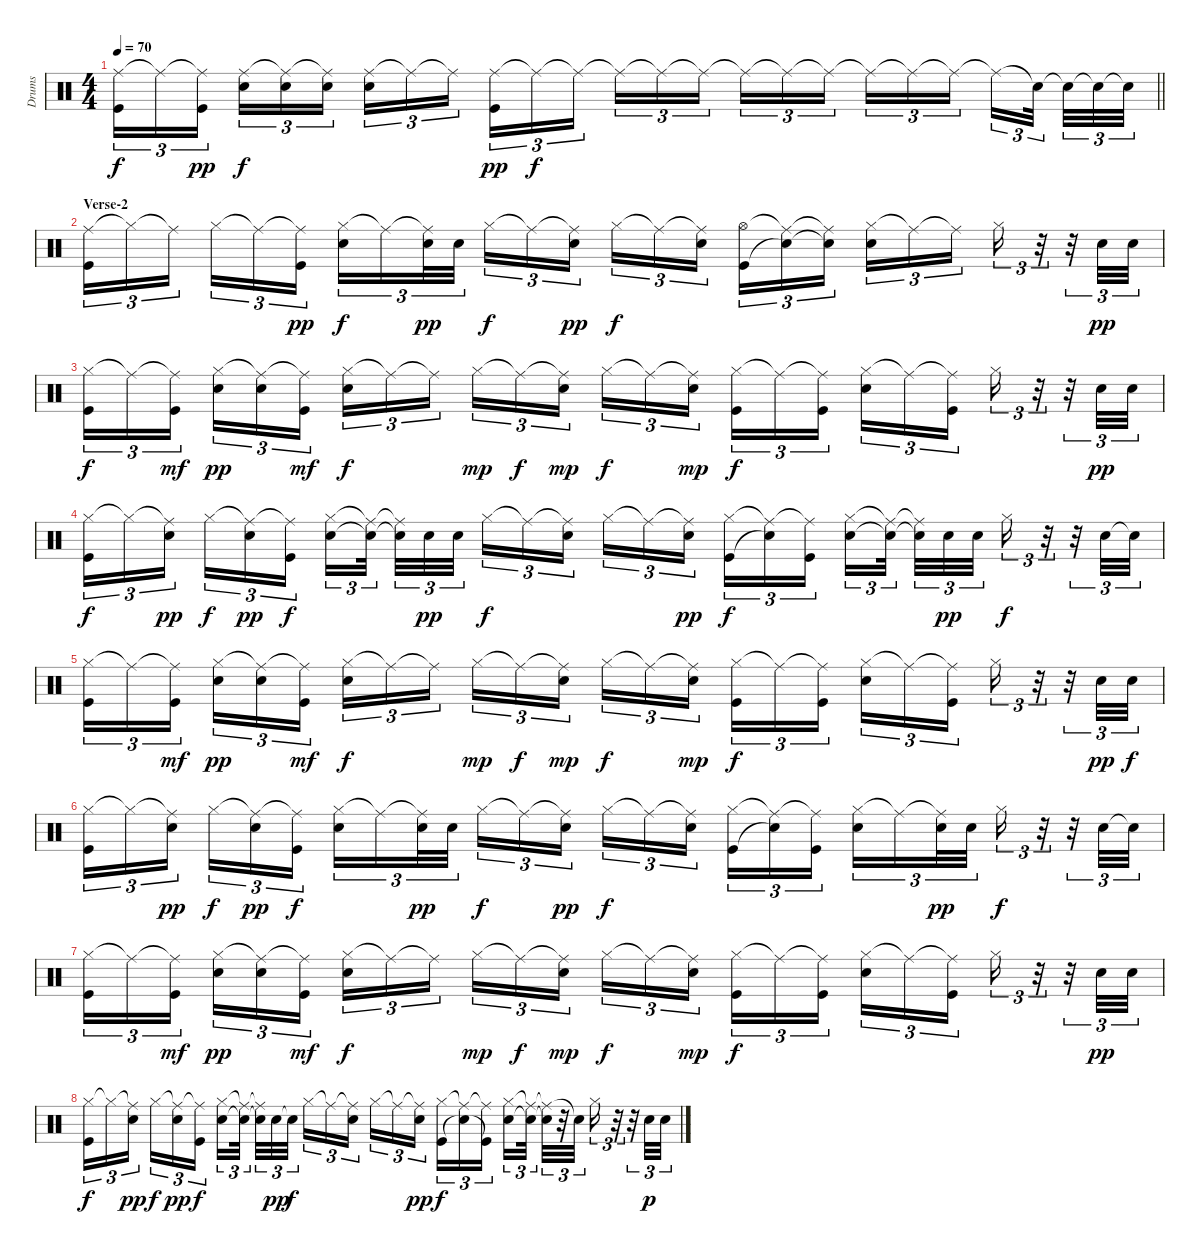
\track ("Drums" "Drums") {instrument percussion}
\staff {score}
\articulation defaults
\ts (4 4)
\tempo 70
\clef neutral
\barLineRight lightlight
\ks c
("Ride (middle)" "Kick (hit)").16{tu (3 2) dy f} "Ride (middle)"{t}.16{tu (3 2)} ("Ride (middle)"{t} "Kick (hit)").16{tu (3 2) dy pp} ("Ride (middle)" "Electric Snare (hit)").16{tu (3 2) dy f} ("Ride (middle)"{t} "Electric Snare (hit)").16{tu (3 2)} ("Ride (middle)"{t} "Electric Snare (hit)").16{tu (3 2)} ("Ride (middle)" "Electric Snare (hit)").16{tu (3 2)} "Ride (middle)"{t}.16{tu (3 2)} "Ride (middle)"{t}.16{tu (3 2)} ("Ride (middle)" "Kick (hit)").16{tu (3 2) dy pp} "Ride (middle)"{t}.16{tu (3 2) dy f} "Ride (middle)"{t}.16{tu (3 2)} "Ride (middle)"{t}.16{tu (3 2)} "Ride (middle)"{t}.16{tu (3 2)} "Ride (middle)"{t}.16{tu (3 2)} "Ride (middle)"{t}.16{tu (3 2)} "Ride (middle)"{t}.16{tu (3 2)} "Ride (middle)"{t}.16{tu (3 2)} "Ride (middle)"{t}.16{tu (3 2)} "Ride (middle)"{t}.16{tu (3 2)} "Ride (middle)"{t}.16{tu (3 2)} "Ride (middle)"{t}.16{tu (3 2)} "Snare (hit)"{t}.32{tu (3 2)} "Snare (hit)"{t}.32{tu (3 2)} "Snare (hit)"{t}.32{tu (3 2)} "Snare (hit)"{t}.32{tu (3 2)} |
\section ("" "Verse-2")
("Ride (middle)" "Kick (hit)").16{tu (3 2)} "Hi-Hat (closed)"{t}.16{tu (3 2)} "Ride (middle)"{t}.16{tu (3 2)} "Hi-Hat (closed)".16{tu (3 2)} "Ride (middle)"{t}.16{tu (3 2)} ("Ride (middle)"{t} "Kick (hit)").16{tu (3 2) dy pp} ("Hi-Hat (closed)" "Electric Snare (hit)").16{tu (3 2) dy f} "Ride (middle)"{t}.16{tu (3 2)} ("Ride (middle)"{t} "Electric Snare (hit)").32{tu (3 2) dy pp} "Electric Snare (hit)".32{tu (3 2)} "Hi-Hat (closed)".16{tu (3 2) dy f} "Ride (middle)"{t}.16{tu (3 2)} ("Ride (middle)"{t} "Electric Snare (hit)").16{tu (3 2) dy pp} "Hi-Hat (closed)".16{tu (3 2) dy f} "Ride (middle)"{t}.16{tu (3 2)} ("Ride (middle)"{t} "Electric Snare (hit)").16{tu (3 2)} ("Hi-Hat (open)" "Kick (hit)").16{tu (3 2)} ("Ride (middle)"{t} "Electric Snare (hit)"{t}).16{tu (3 2)} ("Ride (middle)"{t} "Electric Snare (hit)"{t}).16{tu (3 2)} ("Hi-Hat (closed)" "Electric Snare (hit)").16{tu (3 2)} "Ride (middle)"{t}.16{tu (3 2)} "Ride (middle)"{t}.16{tu (3 2)} "Hi-Hat (closed)".16{tu (3 2)} r.32{tu (3 2)} r.32{tu (3 2)} "Electric Snare (hit)".32{tu (3 2) dy pp} "Electric Snare (hit)".32{tu (3 2)} |
("Hi-Hat (closed)" "Kick (hit)").16{tu (3 2) dy f} "Ride (middle)"{t}.16{tu (3 2)} ("Ride (middle)"{t} "Kick (hit)").16{tu (3 2) dy mf} ("Hi-Hat (closed)" "Electric Snare (hit)").16{tu (3 2) dy pp} ("Ride (middle)"{t} "Electric Snare (hit)").16{tu (3 2)} ("Ride (middle)"{t} "Kick (hit)").16{tu (3 2) dy mf} ("Hi-Hat (closed)" "Electric Snare (hit)").16{tu (3 2) dy f} "Ride (middle)"{t}.16{tu (3 2)} "Ride (middle)"{t}.16{tu (3 2)} "Hi-Hat (closed)".16{tu (3 2) dy mp} "Ride (middle)"{t}.16{tu (3 2) dy f} ("Ride (middle)"{t} "Electric Snare (hit)").16{tu (3 2) dy mp} "Hi-Hat (closed)".16{tu (3 2) dy f} "Ride (middle)"{t}.16{tu (3 2)} ("Ride (middle)"{t} "Electric Snare (hit)").16{tu (3 2) dy mp} ("Hi-Hat (closed)" "Kick (hit)").16{tu (3 2) dy f} "Ride (middle)"{t}.16{tu (3 2)} ("Ride (middle)"{t} "Kick (hit)").16{tu (3 2)} ("Hi-Hat (closed)" "Electric Snare (hit)").16{tu (3 2)} "Ride (middle)"{t}.16{tu (3 2)} ("Ride (middle)"{t} "Kick (hit)").16{tu (3 2)} "Hi-Hat (closed)".16{tu (3 2)} r.32{tu (3 2)} r.32{tu (3 2)} "Electric Snare (hit)".32{tu (3 2) dy pp} "Electric Snare (hit)".32{tu (3 2)} |
("Hi-Hat (closed)" "Kick (hit)").16{tu (3 2) dy f} "Hi-Hat (closed)"{t}.16{tu (3 2)} ("Ride (middle)"{t} "Electric Snare (hit)").16{tu (3 2) dy pp} "Hi-Hat (closed)".16{tu (3 2) dy f} ("Ride (middle)"{t} "Electric Snare (hit)").16{tu (3 2) dy pp} ("Ride (middle)"{t} "Kick (hit)").16{tu (3 2) dy f} ("Hi-Hat (closed)" "Electric Snare (hit)").16{tu (3 2)} ("Ride (middle)"{t} "Electric Snare (hit)"{t}).32{tu (3 2)} ("Ride (middle)"{t} "Electric Snare (hit)"{t}).32{tu (3 2)} "Electric Snare (hit)".32{tu (3 2) dy pp} "Electric Snare (hit)".32{tu (3 2)} "Hi-Hat (closed)".16{tu (3 2) dy f} "Ride (middle)"{t}.16{tu (3 2)} ("Ride (middle)"{t} "Electric Snare (hit)").16{tu (3 2)} "Hi-Hat (closed)".16{tu (3 2)} "Ride (middle)"{t}.16{tu (3 2)} ("Ride (middle)"{t} "Electric Snare (hit)").16{tu (3 2) dy pp} ("Hi-Hat (closed)" "Kick (hit)").16{tu (3 2) dy f} ("Ride (middle)"{t} "Electric Snare (hit)"{t}).16{tu (3 2)} ("Ride (middle)"{t} "Kick (hit)").16{tu (3 2)} ("Hi-Hat (closed)" "Electric Snare (hit)").16{tu (3 2)} ("Ride (middle)"{t} "Electric Snare (hit)"{t}).32{tu (3 2)} ("Ride (middle)"{t} "Electric Snare (hit)"{t}).32{tu (3 2)} "Electric Snare (hit)".32{tu (3 2) dy pp} "Electric Snare (hit)".32{tu (3 2)} "Hi-Hat (closed)".16{tu (3 2) dy f} r.32{tu (3 2)} r.32{tu (3 2)} "Electric Snare (hit)".32{tu (3 2)} "Electric Snare (hit)"{t}.32{tu (3 2)} |
("Hi-Hat (closed)" "Kick (hit)").16{tu (3 2)} "Ride (middle)"{t}.16{tu (3 2)} ("Ride (middle)"{t} "Kick (hit)").16{tu (3 2) dy mf} ("Hi-Hat (closed)" "Electric Snare (hit)").16{tu (3 2) dy pp} ("Ride (middle)"{t} "Electric Snare (hit)").16{tu (3 2)} ("Ride (middle)"{t} "Kick (hit)").16{tu (3 2) dy mf} ("Hi-Hat (closed)" "Electric Snare (hit)").16{tu (3 2) dy f} "Ride (middle)"{t}.16{tu (3 2)} "Ride (middle)"{t}.16{tu (3 2)} "Hi-Hat (closed)".16{tu (3 2) dy mp} "Ride (middle)"{t}.16{tu (3 2) dy f} ("Ride (middle)"{t} "Electric Snare (hit)").16{tu (3 2) dy mp} "Hi-Hat (closed)".16{tu (3 2) dy f} "Ride (middle)"{t}.16{tu (3 2)} ("Ride (middle)"{t} "Electric Snare (hit)").16{tu (3 2) dy mp} ("Hi-Hat (closed)" "Kick (hit)").16{tu (3 2) dy f} "Ride (middle)"{t}.16{tu (3 2)} ("Ride (middle)"{t} "Kick (hit)").16{tu (3 2)} ("Hi-Hat (closed)" "Electric Snare (hit)").16{tu (3 2)} "Ride (middle)"{t}.16{tu (3 2)} ("Ride (middle)"{t} "Kick (hit)").16{tu (3 2)} "Hi-Hat (closed)".16{tu (3 2)} r.32{tu (3 2)} r.32{tu (3 2)} "Electric Snare (hit)".32{tu (3 2) dy pp} "Electric Snare (hit)".32{tu (3 2) dy f} |
("Hi-Hat (closed)" "Kick (hit)").16{tu (3 2)} "Hi-Hat (closed)"{t}.16{tu (3 2)} ("Ride (middle)"{t} "Electric Snare (hit)").16{tu (3 2) dy pp} "Hi-Hat (closed)".16{tu (3 2) dy f} ("Ride (middle)"{t} "Electric Snare (hit)").16{tu (3 2) dy pp} ("Ride (middle)"{t} "Kick (hit)").16{tu (3 2) dy f} ("Hi-Hat (closed)" "Electric Snare (hit)").16{tu (3 2)} "Ride (middle)"{t}.16{tu (3 2)} ("Ride (middle)"{t} "Electric Snare (hit)").32{tu (3 2) dy pp} "Electric Snare (hit)".32{tu (3 2)} "Hi-Hat (closed)".16{tu (3 2) dy f} "Ride (middle)"{t}.16{tu (3 2)} ("Ride (middle)"{t} "Electric Snare (hit)").16{tu (3 2) dy pp} "Hi-Hat (closed)".16{tu (3 2) dy f} "Ride (middle)"{t}.16{tu (3 2)} ("Ride (middle)"{t} "Electric Snare (hit)").16{tu (3 2)} ("Hi-Hat (closed)" "Kick (hit)").16{tu (3 2)} ("Ride (middle)"{t} "Electric Snare (hit)"{t}).16{tu (3 2)} ("Ride (middle)"{t} "Kick (hit)").16{tu (3 2)} ("Hi-Hat (closed)" "Electric Snare (hit)").16{tu (3 2)} "Ride (middle)"{t}.16{tu (3 2)} ("Ride (middle)"{t} "Electric Snare (hit)").32{tu (3 2) dy pp} "Electric Snare (hit)".32{tu (3 2)} "Hi-Hat (closed)".16{tu (3 2) dy f} r.32{tu (3 2)} r.32{tu (3 2)} "Electric Snare (hit)".32{tu (3 2)} "Electric Snare (hit)"{t}.32{tu (3 2)} |
("Hi-Hat (closed)" "Kick (hit)").16{tu (3 2)} "Ride (middle)"{t}.16{tu (3 2)} ("Ride (middle)"{t} "Kick (hit)").16{tu (3 2) dy mf} ("Hi-Hat (closed)" "Electric Snare (hit)").16{tu (3 2) dy pp} ("Ride (middle)"{t} "Electric Snare (hit)").16{tu (3 2)} ("Ride (middle)"{t} "Kick (hit)").16{tu (3 2) dy mf} ("Hi-Hat (closed)" "Electric Snare (hit)").16{tu (3 2) dy f} "Ride (middle)"{t}.16{tu (3 2)} "Ride (middle)"{t}.16{tu (3 2)} "Hi-Hat (closed)".16{tu (3 2) dy mp} "Ride (middle)"{t}.16{tu (3 2) dy f} ("Ride (middle)"{t} "Electric Snare (hit)").16{tu (3 2) dy mp} "Hi-Hat (closed)".16{tu (3 2) dy f} "Ride (middle)"{t}.16{tu (3 2)} ("Ride (middle)"{t} "Electric Snare (hit)").16{tu (3 2) dy mp} ("Hi-Hat (closed)" "Kick (hit)").16{tu (3 2) dy f} "Ride (middle)"{t}.16{tu (3 2)} ("Ride (middle)"{t} "Kick (hit)").16{tu (3 2)} ("Hi-Hat (closed)" "Electric Snare (hit)").16{tu (3 2)} "Ride (middle)"{t}.16{tu (3 2)} ("Ride (middle)"{t} "Kick (hit)").16{tu (3 2)} "Hi-Hat (closed)".16{tu (3 2)} r.32{tu (3 2)} r.32{tu (3 2)} "Electric Snare (hit)".32{tu (3 2) dy pp} "Electric Snare (hit)".32{tu (3 2)} |
("Hi-Hat (closed)" "Kick (hit)").16{tu (3 2) dy f} "Hi-Hat (closed)"{t}.16{tu (3 2)} ("Ride (middle)"{t} "Electric Snare (hit)").16{tu (3 2) dy pp} "Hi-Hat (closed)".16{tu (3 2) dy f} ("Ride (middle)"{t} "Electric Snare (hit)").16{tu (3 2) dy pp} ("Ride (middle)"{t} "Kick (hit)").16{tu (3 2) dy f} ("Hi-Hat (closed)" "Electric Snare (hit)").16{tu (3 2)} ("Ride (middle)"{t} "Electric Snare (hit)"{t}).32{tu (3 2)} ("Ride (middle)"{t} "Electric Snare (hit)"{t}).32{tu (3 2)} "Electric Snare (hit)".32{tu (3 2) dy pp} "Electric Snare (hit)"{t}.32{tu (3 2) dy f} "Hi-Hat (closed)".16{tu (3 2)} "Ride (middle)"{t}.16{tu (3 2)} ("Ride (middle)"{t} "Electric Snare (hit)").16{tu (3 2)} "Hi-Hat (closed)".16{tu (3 2)} "Ride (middle)"{t}.16{tu (3 2)} ("Ride (middle)"{t} "Electric Snare (hit)").16{tu (3 2) dy pp} ("Hi-Hat (closed)" "Kick (hit)").16{tu (3 2) dy f} ("Ride (middle)"{t} "Electric Snare (hit)"{t}).16{tu (3 2)} ("Ride (middle)"{t} "Kick (hit)"{t}).16{tu (3 2)} ("Hi-Hat (closed)" "Electric Snare (hit)").16{tu (3 2)} ("Ride (middle)"{t} "Electric Snare (hit)"{t}).32{tu (3 2)} ("Ride (middle)"{t} "Electric Snare (hit)"{t}).32{tu (3 2)} r.32{tu (3 2)} "Electric Snare (hit)"{t}.32{tu (3 2)} "Hi-Hat (closed)".16{tu (3 2)} r.32{tu (3 2)} r.32{tu (3 2)} "Electric Snare (hit)".32{tu (3 2) dy p} "Electric Snare (hit)".32{tu (3 2)}
